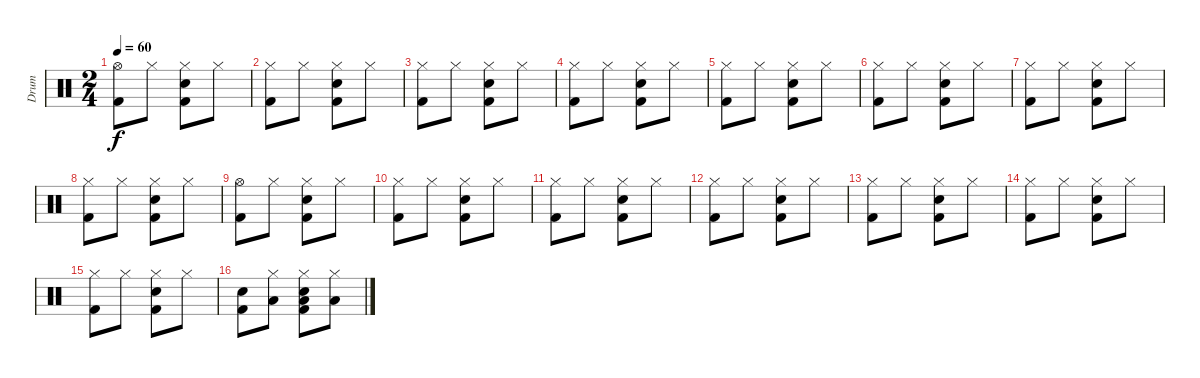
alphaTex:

\track ("Drum" "Drum") {instrument percussion}
\staff {score}
\articulation defaults
\ts (2 4)
\tempo 60
\clef neutral
\ks c
("Hi-Hat (open)" "Kick (hit) 2").8{dy f} "Hi-Hat (closed)".8 ("Snare (hit) 2" "Hi-Hat (closed)" "Kick (hit) 2").8 "Hi-Hat (closed)".8 |
("Hi-Hat (closed)" "Kick (hit) 2").8 "Hi-Hat (closed)".8 ("Hi-Hat (closed)" "Snare (hit) 2" "Kick (hit) 2").8 "Hi-Hat (closed)".8 |
("Hi-Hat (closed)" "Kick (hit) 2").8 "Hi-Hat (closed)".8 ("Hi-Hat (closed)" "Snare (hit) 2" "Kick (hit) 2").8 "Hi-Hat (closed)".8 |
("Hi-Hat (closed)" "Kick (hit) 2").8 "Hi-Hat (closed)".8 ("Hi-Hat (closed)" "Snare (hit) 2" "Kick (hit) 2").8 "Hi-Hat (closed)".8 |
("Hi-Hat (closed)" "Kick (hit) 2").8 "Hi-Hat (closed)".8 ("Hi-Hat (closed)" "Snare (hit) 2" "Kick (hit) 2").8 "Hi-Hat (closed)".8 |
("Hi-Hat (closed)" "Kick (hit) 2").8 "Hi-Hat (closed)".8 ("Hi-Hat (closed)" "Snare (hit) 2" "Kick (hit) 2").8 "Hi-Hat (closed)".8 |
("Hi-Hat (closed)" "Kick (hit) 2").8 "Hi-Hat (closed)".8 ("Hi-Hat (closed)" "Snare (hit) 2" "Kick (hit) 2").8 "Hi-Hat (closed)".8 |
("Hi-Hat (closed)" "Kick (hit) 2").8 "Hi-Hat (closed)".8 ("Hi-Hat (closed)" "Snare (hit) 2" "Kick (hit) 2").8 "Hi-Hat (closed)".8 |
("Hi-Hat (open)" "Kick (hit) 2").8 "Hi-Hat (closed)".8 ("Snare (hit) 2" "Hi-Hat (closed)" "Kick (hit) 2").8 "Hi-Hat (closed)".8 |
("Hi-Hat (closed)" "Kick (hit) 2").8 "Hi-Hat (closed)".8 ("Hi-Hat (closed)" "Snare (hit) 2" "Kick (hit) 2").8 "Hi-Hat (closed)".8 |
("Hi-Hat (closed)" "Kick (hit) 2").8 "Hi-Hat (closed)".8 ("Hi-Hat (closed)" "Snare (hit) 2" "Kick (hit) 2").8 "Hi-Hat (closed)".8 |
("Hi-Hat (closed)" "Kick (hit) 2").8 "Hi-Hat (closed)".8 ("Hi-Hat (closed)" "Snare (hit) 2" "Kick (hit) 2").8 "Hi-Hat (closed)".8 |
("Hi-Hat (closed)" "Kick (hit) 2").8 "Hi-Hat (closed)".8 ("Hi-Hat (closed)" "Snare (hit) 2" "Kick (hit) 2").8 "Hi-Hat (closed)".8 |
("Hi-Hat (closed)" "Kick (hit) 2").8 "Hi-Hat (closed)".8 ("Hi-Hat (closed)" "Snare (hit) 2" "Kick (hit) 2").8 "Hi-Hat (closed)".8 |
("Hi-Hat (closed)" "Kick (hit) 2").8 "Hi-Hat (closed)".8 ("Hi-Hat (closed)" "Snare (hit) 2" "Kick (hit) 2").8 "Hi-Hat (closed)".8 |
("Snare (hit) 2" "Kick (hit) 2").8 ("Low Tom (hit)" "Hi-Hat (closed)").8 ("Hi-Hat (closed)" "Snare (hit) 2" "Low Tom (hit)" "Kick (hit) 2").8 ("Low Tom (hit)" "Hi-Hat (closed)").8
